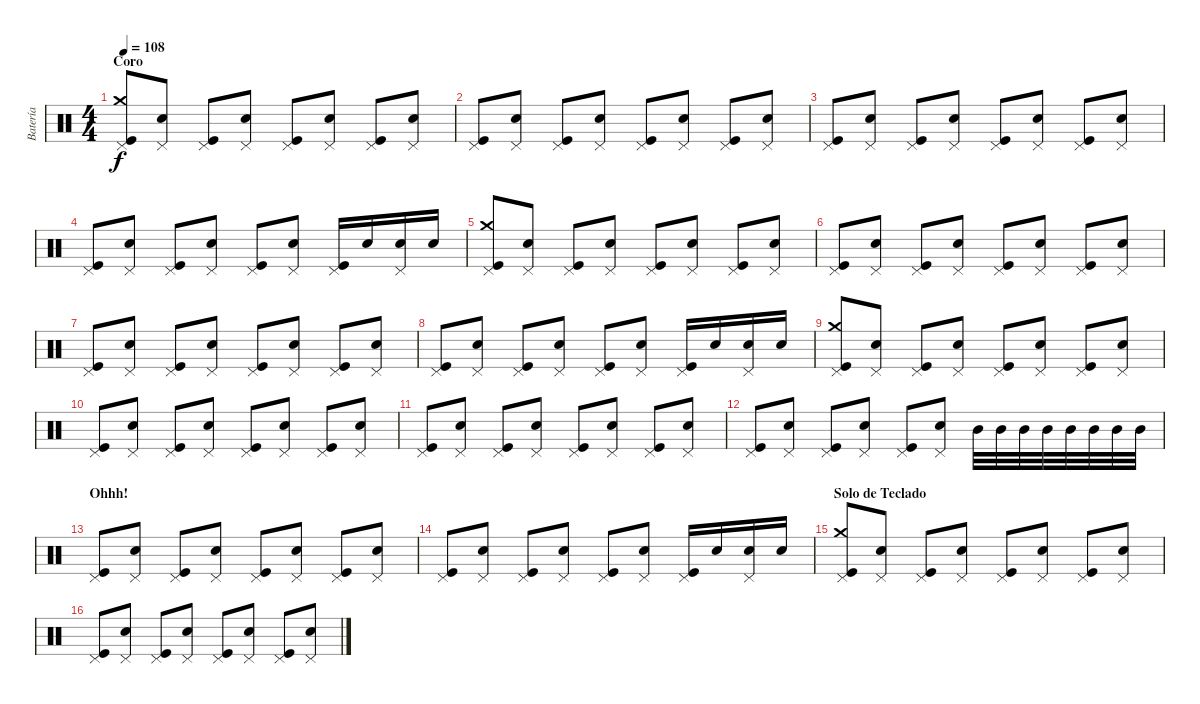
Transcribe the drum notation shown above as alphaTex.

\track ("Batería" "Batería") {instrument percussion}
\staff {score}
\articulation defaults
\ts (4 4)
\section ("" "Coro")
\tempo 108
\clef neutral
\ks c
("Pedal Hi-Hat (hit)" "Crash medium (hit)" "Kick (hit)").8{dy f} ("Pedal Hi-Hat (hit)" "Electric Snare (hit)").8 ("Pedal Hi-Hat (hit)" "Kick (hit)").8 ("Pedal Hi-Hat (hit)" "Electric Snare (hit)").8 ("Pedal Hi-Hat (hit)" "Kick (hit)").8 ("Pedal Hi-Hat (hit)" "Electric Snare (hit)").8 ("Pedal Hi-Hat (hit)" "Kick (hit)").8 ("Pedal Hi-Hat (hit)" "Electric Snare (hit)").8 |
("Pedal Hi-Hat (hit)" "Kick (hit)").8 ("Pedal Hi-Hat (hit)" "Electric Snare (hit)").8 ("Pedal Hi-Hat (hit)" "Kick (hit)").8 ("Pedal Hi-Hat (hit)" "Electric Snare (hit)").8 ("Pedal Hi-Hat (hit)" "Kick (hit)").8 ("Pedal Hi-Hat (hit)" "Electric Snare (hit)").8 ("Pedal Hi-Hat (hit)" "Kick (hit)").8 ("Pedal Hi-Hat (hit)" "Electric Snare (hit)").8 |
("Pedal Hi-Hat (hit)" "Kick (hit)").8 ("Pedal Hi-Hat (hit)" "Electric Snare (hit)").8 ("Pedal Hi-Hat (hit)" "Kick (hit)").8 ("Pedal Hi-Hat (hit)" "Electric Snare (hit)").8 ("Pedal Hi-Hat (hit)" "Kick (hit)").8 ("Pedal Hi-Hat (hit)" "Electric Snare (hit)").8 ("Pedal Hi-Hat (hit)" "Kick (hit)").8 ("Pedal Hi-Hat (hit)" "Electric Snare (hit)").8 |
("Pedal Hi-Hat (hit)" "Kick (hit)").8 ("Pedal Hi-Hat (hit)" "Electric Snare (hit)").8 ("Pedal Hi-Hat (hit)" "Kick (hit)").8 ("Pedal Hi-Hat (hit)" "Electric Snare (hit)").8 ("Pedal Hi-Hat (hit)" "Kick (hit)").8 ("Pedal Hi-Hat (hit)" "Electric Snare (hit)").8 ("Pedal Hi-Hat (hit)" "Kick (hit)").16 "Electric Snare (hit)".16 ("Pedal Hi-Hat (hit)" "Electric Snare (hit)").16 "Electric Snare (hit)".16 |
("Pedal Hi-Hat (hit)" "Crash medium (hit)" "Kick (hit)").8 ("Pedal Hi-Hat (hit)" "Electric Snare (hit)").8 ("Pedal Hi-Hat (hit)" "Kick (hit)").8 ("Pedal Hi-Hat (hit)" "Electric Snare (hit)").8 ("Pedal Hi-Hat (hit)" "Kick (hit)").8 ("Pedal Hi-Hat (hit)" "Electric Snare (hit)").8 ("Pedal Hi-Hat (hit)" "Kick (hit)").8 ("Pedal Hi-Hat (hit)" "Electric Snare (hit)").8 |
("Pedal Hi-Hat (hit)" "Kick (hit)").8 ("Pedal Hi-Hat (hit)" "Electric Snare (hit)").8 ("Pedal Hi-Hat (hit)" "Kick (hit)").8 ("Pedal Hi-Hat (hit)" "Electric Snare (hit)").8 ("Pedal Hi-Hat (hit)" "Kick (hit)").8 ("Pedal Hi-Hat (hit)" "Electric Snare (hit)").8 ("Pedal Hi-Hat (hit)" "Kick (hit)").8 ("Pedal Hi-Hat (hit)" "Electric Snare (hit)").8 |
("Pedal Hi-Hat (hit)" "Kick (hit)").8 ("Pedal Hi-Hat (hit)" "Electric Snare (hit)").8 ("Pedal Hi-Hat (hit)" "Kick (hit)").8 ("Pedal Hi-Hat (hit)" "Electric Snare (hit)").8 ("Pedal Hi-Hat (hit)" "Kick (hit)").8 ("Pedal Hi-Hat (hit)" "Electric Snare (hit)").8 ("Pedal Hi-Hat (hit)" "Kick (hit)").8 ("Pedal Hi-Hat (hit)" "Electric Snare (hit)").8 |
("Pedal Hi-Hat (hit)" "Kick (hit)").8 ("Pedal Hi-Hat (hit)" "Electric Snare (hit)").8 ("Pedal Hi-Hat (hit)" "Kick (hit)").8 ("Pedal Hi-Hat (hit)" "Electric Snare (hit)").8 ("Pedal Hi-Hat (hit)" "Kick (hit)").8 ("Pedal Hi-Hat (hit)" "Electric Snare (hit)").8 ("Pedal Hi-Hat (hit)" "Kick (hit)").16 "Electric Snare (hit)".16 ("Pedal Hi-Hat (hit)" "Electric Snare (hit)").16 "Electric Snare (hit)".16 |
("Pedal Hi-Hat (hit)" "Crash medium (hit)" "Kick (hit)").8 ("Pedal Hi-Hat (hit)" "Electric Snare (hit)").8 ("Pedal Hi-Hat (hit)" "Kick (hit)").8 ("Pedal Hi-Hat (hit)" "Electric Snare (hit)").8 ("Pedal Hi-Hat (hit)" "Kick (hit)").8 ("Pedal Hi-Hat (hit)" "Electric Snare (hit)").8 ("Pedal Hi-Hat (hit)" "Kick (hit)").8 ("Pedal Hi-Hat (hit)" "Electric Snare (hit)").8 |
("Pedal Hi-Hat (hit)" "Kick (hit)").8 ("Pedal Hi-Hat (hit)" "Electric Snare (hit)").8 ("Pedal Hi-Hat (hit)" "Kick (hit)").8 ("Pedal Hi-Hat (hit)" "Electric Snare (hit)").8 ("Pedal Hi-Hat (hit)" "Kick (hit)").8 ("Pedal Hi-Hat (hit)" "Electric Snare (hit)").8 ("Pedal Hi-Hat (hit)" "Kick (hit)").8 ("Pedal Hi-Hat (hit)" "Electric Snare (hit)").8 |
("Pedal Hi-Hat (hit)" "Kick (hit)").8 ("Pedal Hi-Hat (hit)" "Electric Snare (hit)").8 ("Pedal Hi-Hat (hit)" "Kick (hit)").8 ("Pedal Hi-Hat (hit)" "Electric Snare (hit)").8 ("Pedal Hi-Hat (hit)" "Kick (hit)").8 ("Pedal Hi-Hat (hit)" "Electric Snare (hit)").8 ("Pedal Hi-Hat (hit)" "Kick (hit)").8 ("Pedal Hi-Hat (hit)" "Electric Snare (hit)").8 |
("Pedal Hi-Hat (hit)" "Kick (hit)").8 ("Pedal Hi-Hat (hit)" "Electric Snare (hit)").8 ("Pedal Hi-Hat (hit)" "Kick (hit)").8 ("Pedal Hi-Hat (hit)" "Electric Snare (hit)").8 ("Pedal Hi-Hat (hit)" "Kick (hit)").8 ("Pedal Hi-Hat (hit)" "Electric Snare (hit)").8 "Mid Tom (hit)".32 "Mid Tom (hit)".32 "Mid Tom (hit)".32 "Mid Tom (hit)".32 "Mid Tom (hit)".32 "Mid Tom (hit)".32 "Mid Tom (hit)".32 "Mid Tom (hit)".32 |
\section ("" "Ohhh!")
("Pedal Hi-Hat (hit)" "Kick (hit)").8 ("Pedal Hi-Hat (hit)" "Electric Snare (hit)").8 ("Pedal Hi-Hat (hit)" "Kick (hit)").8 ("Pedal Hi-Hat (hit)" "Electric Snare (hit)").8 ("Pedal Hi-Hat (hit)" "Kick (hit)").8 ("Pedal Hi-Hat (hit)" "Electric Snare (hit)").8 ("Pedal Hi-Hat (hit)" "Kick (hit)").8 ("Pedal Hi-Hat (hit)" "Electric Snare (hit)").8 |
("Pedal Hi-Hat (hit)" "Kick (hit)").8 ("Pedal Hi-Hat (hit)" "Electric Snare (hit)").8 ("Pedal Hi-Hat (hit)" "Kick (hit)").8 ("Pedal Hi-Hat (hit)" "Electric Snare (hit)").8 ("Pedal Hi-Hat (hit)" "Kick (hit)").8 ("Pedal Hi-Hat (hit)" "Electric Snare (hit)").8 ("Pedal Hi-Hat (hit)" "Kick (hit)").16 "Electric Snare (hit)".16 ("Pedal Hi-Hat (hit)" "Electric Snare (hit)").16 "Electric Snare (hit)".16 |
\section ("" "Solo de Teclado")
("Pedal Hi-Hat (hit)" "Crash medium (hit)" "Kick (hit)").8 ("Pedal Hi-Hat (hit)" "Electric Snare (hit)").8 ("Pedal Hi-Hat (hit)" "Kick (hit)").8 ("Pedal Hi-Hat (hit)" "Electric Snare (hit)").8 ("Pedal Hi-Hat (hit)" "Kick (hit)").8 ("Pedal Hi-Hat (hit)" "Electric Snare (hit)").8 ("Pedal Hi-Hat (hit)" "Kick (hit)").8 ("Pedal Hi-Hat (hit)" "Electric Snare (hit)").8 |
("Pedal Hi-Hat (hit)" "Kick (hit)").8 ("Pedal Hi-Hat (hit)" "Electric Snare (hit)").8 ("Pedal Hi-Hat (hit)" "Kick (hit)").8 ("Pedal Hi-Hat (hit)" "Electric Snare (hit)").8 ("Pedal Hi-Hat (hit)" "Kick (hit)").8 ("Pedal Hi-Hat (hit)" "Electric Snare (hit)").8 ("Pedal Hi-Hat (hit)" "Kick (hit)").8 ("Pedal Hi-Hat (hit)" "Electric Snare (hit)").8
